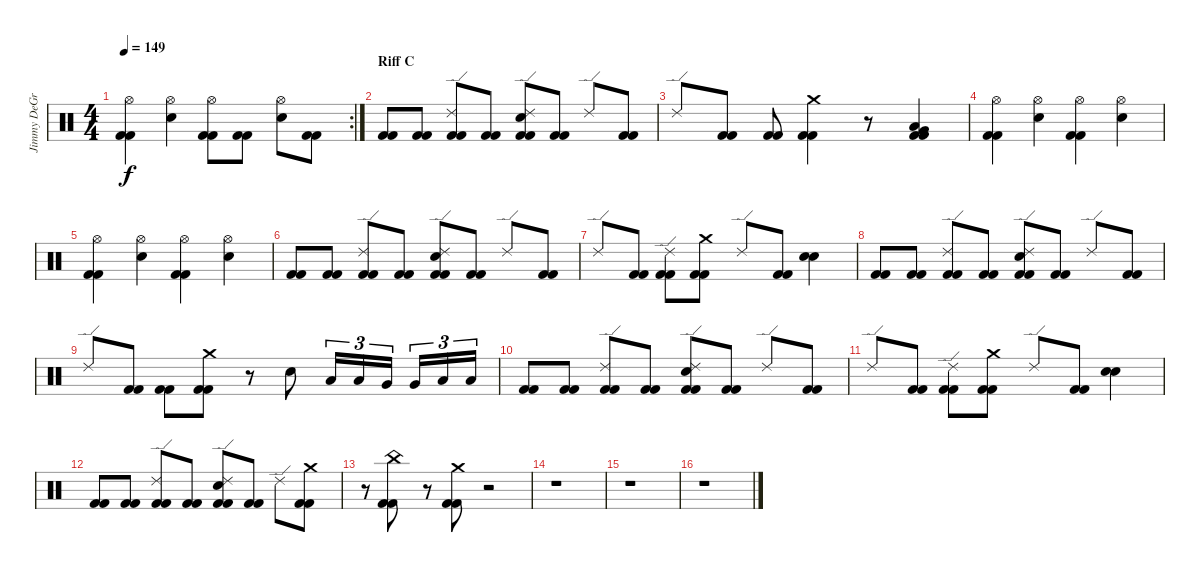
\track ("Jimmy DeGrasso" "Jimmy DeGr") {instrument percussion}
\staff {score}
\articulation defaults
\rc 2
\ts (4 4)
\tempo 149
\clef neutral
\ks c
("Hi-Hat (open)" "Kick (hit) 2" "Kick (hit) 2").4{dy f} ("Hi-Hat (open)" "Snare (hit) 2").4 ("Hi-Hat (open)" "Kick (hit) 2" "Kick (hit) 2").8 ("Kick (hit) 2" "Kick (hit) 2").8 ("Hi-Hat (open)" "Snare (hit) 2").8 ("Kick (hit) 2" "Kick (hit) 2").8 |
\section ("" "Riff C")
("Kick (hit) 2" "Kick (hit) 2").8 ("Kick (hit) 2" "Kick (hit) 2").8 ("Ride (edge) 2" "Kick (hit) 2" "Kick (hit) 2").8 ("Kick (hit) 2" "Kick (hit) 2").8 ("Ride (edge) 2" "Snare (hit) 2" "Kick (hit) 2" "Kick (hit) 2").8 ("Kick (hit) 2" "Kick (hit) 2").8 "Ride (edge) 2".8 ("Kick (hit) 2" "Kick (hit) 2").8 |
"Ride (edge) 2".8 ("Kick (hit) 2" "Kick (hit) 2").8 ("Kick (hit) 2" "Kick (hit) 2").8 ("Crash medium (hit)" "Kick (hit) 2" "Kick (hit) 2").4 r.8 ("Very Low Tom (hit)" "Low Floor Tom (hit)" "Kick (hit) 2" "Kick (hit) 2").4 |
("Hi-Hat (open)" "Kick (hit) 2" "Kick (hit) 2").4 ("Hi-Hat (open)" "Snare (hit) 2").4 ("Hi-Hat (open)" "Kick (hit) 2" "Kick (hit) 2").4 ("Hi-Hat (open)" "Snare (hit) 2").4 |
("Hi-Hat (open)" "Kick (hit) 2" "Kick (hit) 2").4 ("Hi-Hat (open)" "Snare (hit) 2").4 ("Hi-Hat (open)" "Kick (hit) 2" "Kick (hit) 2").4 ("Hi-Hat (open)" "Snare (hit) 2").4 |
("Kick (hit) 2" "Kick (hit) 2").8 ("Kick (hit) 2" "Kick (hit) 2").8 ("Ride (edge) 2" "Kick (hit) 2" "Kick (hit) 2").8 ("Kick (hit) 2" "Kick (hit) 2").8 ("Ride (edge) 2" "Snare (hit) 2" "Kick (hit) 2" "Kick (hit) 2").8 ("Kick (hit) 2" "Kick (hit) 2").8 "Ride (edge) 2".8 ("Kick (hit) 2" "Kick (hit) 2").8 |
"Ride (edge) 2".8 ("Kick (hit) 2" "Kick (hit) 2").8 ("Ride (edge) 2" "Kick (hit) 2" "Kick (hit) 2").8 ("Crash medium (hit)" "Kick (hit) 2" "Kick (hit) 2").8 "Ride (edge) 2".8 ("Kick (hit) 2" "Kick (hit) 2").8 ("Snare (hit) 2" "Snare (hit) 2").4 |
("Kick (hit) 2" "Kick (hit) 2").8 ("Kick (hit) 2" "Kick (hit) 2").8 ("Ride (edge) 2" "Kick (hit) 2" "Kick (hit) 2").8 ("Kick (hit) 2" "Kick (hit) 2").8 ("Ride (edge) 2" "Snare (hit) 2" "Kick (hit) 2" "Kick (hit) 2").8 ("Kick (hit) 2" "Kick (hit) 2").8 "Ride (edge) 2".8 ("Kick (hit) 2" "Kick (hit) 2").8 |
"Ride (edge) 2".8 ("Kick (hit) 2" "Kick (hit) 2").8 ("Kick (hit) 2" "Kick (hit) 2").8 ("Crash medium (hit)" "Kick (hit) 2" "Kick (hit) 2").8 r.8 "Snare (hit) 2".8 "Low Tom (hit)".16{tu (3 2)} "Low Tom (hit)".16{tu (3 2)} "Very Low Tom (hit)".16{tu (3 2)} "Very Low Tom (hit)".16{tu (3 2)} "Low Floor Tom (hit)".16{tu (3 2)} "Low Floor Tom (hit)".16{tu (3 2)} |
("Kick (hit) 2" "Kick (hit) 2").8 ("Kick (hit) 2" "Kick (hit) 2").8 ("Ride (edge) 2" "Kick (hit) 2" "Kick (hit) 2").8 ("Kick (hit) 2" "Kick (hit) 2").8 ("Ride (edge) 2" "Snare (hit) 2" "Kick (hit) 2" "Kick (hit) 2").8 ("Kick (hit) 2" "Kick (hit) 2").8 "Ride (edge) 2".8 ("Kick (hit) 2" "Kick (hit) 2").8 |
"Ride (edge) 2".8 ("Kick (hit) 2" "Kick (hit) 2").8 ("Ride (edge) 2" "Kick (hit) 2" "Kick (hit) 2").8 ("Crash medium (hit)" "Kick (hit) 2" "Kick (hit) 2").8 "Ride (edge) 2".8 ("Kick (hit) 2" "Kick (hit) 2").8 ("Snare (hit) 2" "Snare (hit) 2").4 |
("Kick (hit) 2" "Kick (hit) 2").8 ("Kick (hit) 2" "Kick (hit) 2").8 ("Ride (edge) 2" "Kick (hit) 2" "Kick (hit) 2").8 ("Kick (hit) 2" "Kick (hit) 2").8 ("Ride (edge) 2" "Snare (hit) 2" "Kick (hit) 2" "Kick (hit) 2").8 ("Kick (hit) 2" "Kick (hit) 2").8 "Ride (edge) 2".8 ("Crash medium (hit)" "Kick (hit) 2" "Kick (hit) 2").8 |
r.8 ("China (hit)" "Kick (hit) 2" "Kick (hit) 2").8 r.8 ("Crash medium (hit)" "Kick (hit) 2" "Kick (hit) 2").8 r.2 |
r.1 |
r.1 |
r.1
